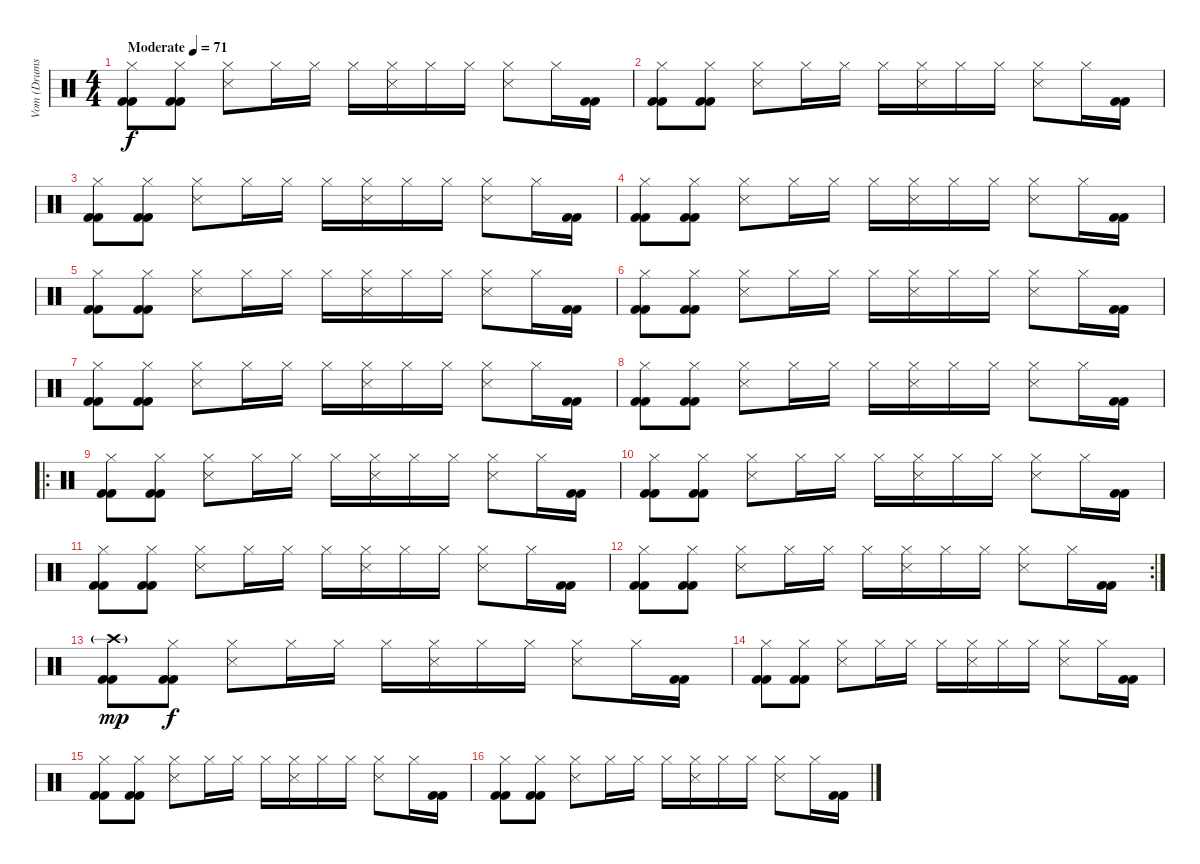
\track ("Vom (Drums)" "Vom (Drums") {instrument percussion}
\staff {score}
\articulation defaults
\ts (4 4)
\tempo (71 "Moderate")
\clef neutral
\ks c
("Hi-Hat (closed)" "Kick (hit) 2" "Kick (hit) 2").8{dy f} ("Hi-Hat (closed)" "Kick (hit) 2" "Kick (hit) 2").8 ("Hi-Hat (closed)" "Snare (side stick) 3").8 "Hi-Hat (closed)".16 "Hi-Hat (closed)".16 "Hi-Hat (closed)".16 ("Hi-Hat (closed)" "Snare (side stick) 3").16 "Hi-Hat (closed)".16 "Hi-Hat (closed)".16 ("Hi-Hat (closed)" "Snare (side stick) 3").8 "Hi-Hat (closed)".16 ("Kick (hit) 2" "Kick (hit) 2").16 |
("Hi-Hat (closed)" "Kick (hit) 2" "Kick (hit) 2").8 ("Hi-Hat (closed)" "Kick (hit) 2" "Kick (hit) 2").8 ("Hi-Hat (closed)" "Snare (side stick) 3").8 "Hi-Hat (closed)".16 "Hi-Hat (closed)".16 "Hi-Hat (closed)".16 ("Hi-Hat (closed)" "Snare (side stick) 3").16 "Hi-Hat (closed)".16 "Hi-Hat (closed)".16 ("Hi-Hat (closed)" "Snare (side stick) 3").8 "Hi-Hat (closed)".16 ("Kick (hit) 2" "Kick (hit) 2").16 |
("Hi-Hat (closed)" "Kick (hit) 2" "Kick (hit) 2").8 ("Hi-Hat (closed)" "Kick (hit) 2" "Kick (hit) 2").8 ("Hi-Hat (closed)" "Snare (side stick) 3").8 "Hi-Hat (closed)".16 "Hi-Hat (closed)".16 "Hi-Hat (closed)".16 ("Hi-Hat (closed)" "Snare (side stick) 3").16 "Hi-Hat (closed)".16 "Hi-Hat (closed)".16 ("Hi-Hat (closed)" "Snare (side stick) 3").8 "Hi-Hat (closed)".16 ("Kick (hit) 2" "Kick (hit) 2").16 |
("Hi-Hat (closed)" "Kick (hit) 2" "Kick (hit) 2").8 ("Hi-Hat (closed)" "Kick (hit) 2" "Kick (hit) 2").8 ("Hi-Hat (closed)" "Snare (side stick) 3").8 "Hi-Hat (closed)".16 "Hi-Hat (closed)".16 "Hi-Hat (closed)".16 ("Hi-Hat (closed)" "Snare (side stick) 3").16 "Hi-Hat (closed)".16 "Hi-Hat (closed)".16 ("Hi-Hat (closed)" "Snare (side stick) 3").8 "Hi-Hat (closed)".16 ("Kick (hit) 2" "Kick (hit) 2").16 |
("Hi-Hat (closed)" "Kick (hit) 2" "Kick (hit) 2").8 ("Hi-Hat (closed)" "Kick (hit) 2" "Kick (hit) 2").8 ("Hi-Hat (closed)" "Snare (side stick) 3").8 "Hi-Hat (closed)".16 "Hi-Hat (closed)".16 "Hi-Hat (closed)".16 ("Hi-Hat (closed)" "Snare (side stick) 3").16 "Hi-Hat (closed)".16 "Hi-Hat (closed)".16 ("Hi-Hat (closed)" "Snare (side stick) 3").8 "Hi-Hat (closed)".16 ("Kick (hit) 2" "Kick (hit) 2").16 |
("Hi-Hat (closed)" "Kick (hit) 2" "Kick (hit) 2").8 ("Hi-Hat (closed)" "Kick (hit) 2" "Kick (hit) 2").8 ("Hi-Hat (closed)" "Snare (side stick) 3").8 "Hi-Hat (closed)".16 "Hi-Hat (closed)".16 "Hi-Hat (closed)".16 ("Hi-Hat (closed)" "Snare (side stick) 3").16 "Hi-Hat (closed)".16 "Hi-Hat (closed)".16 ("Hi-Hat (closed)" "Snare (side stick) 3").8 "Hi-Hat (closed)".16 ("Kick (hit) 2" "Kick (hit) 2").16 |
("Hi-Hat (closed)" "Kick (hit) 2" "Kick (hit) 2").8 ("Hi-Hat (closed)" "Kick (hit) 2" "Kick (hit) 2").8 ("Hi-Hat (closed)" "Snare (side stick) 3").8 "Hi-Hat (closed)".16 "Hi-Hat (closed)".16 "Hi-Hat (closed)".16 ("Hi-Hat (closed)" "Snare (side stick) 3").16 "Hi-Hat (closed)".16 "Hi-Hat (closed)".16 ("Hi-Hat (closed)" "Snare (side stick) 3").8 "Hi-Hat (closed)".16 ("Kick (hit) 2" "Kick (hit) 2").16 |
("Hi-Hat (closed)" "Kick (hit) 2" "Kick (hit) 2").8 ("Hi-Hat (closed)" "Kick (hit) 2" "Kick (hit) 2").8 ("Hi-Hat (closed)" "Snare (side stick) 3").8 "Hi-Hat (closed)".16 "Hi-Hat (closed)".16 "Hi-Hat (closed)".16 ("Hi-Hat (closed)" "Snare (side stick) 3").16 "Hi-Hat (closed)".16 "Hi-Hat (closed)".16 ("Hi-Hat (closed)" "Snare (side stick) 3").8 "Hi-Hat (closed)".16 ("Kick (hit) 2" "Kick (hit) 2").16 |
\ro
("Hi-Hat (closed)" "Kick (hit) 2" "Kick (hit) 2").8 ("Hi-Hat (closed)" "Kick (hit) 2" "Kick (hit) 2").8 ("Hi-Hat (closed)" "Snare (side stick) 3").8 "Hi-Hat (closed)".16 "Hi-Hat (closed)".16 "Hi-Hat (closed)".16 ("Hi-Hat (closed)" "Snare (side stick) 3").16 "Hi-Hat (closed)".16 "Hi-Hat (closed)".16 ("Hi-Hat (closed)" "Snare (side stick) 3").8 "Hi-Hat (closed)".16 ("Kick (hit) 2" "Kick (hit) 2").16 |
("Hi-Hat (closed)" "Kick (hit) 2" "Kick (hit) 2").8 ("Hi-Hat (closed)" "Kick (hit) 2" "Kick (hit) 2").8 ("Hi-Hat (closed)" "Snare (side stick) 3").8 "Hi-Hat (closed)".16 "Hi-Hat (closed)".16 "Hi-Hat (closed)".16 ("Hi-Hat (closed)" "Snare (side stick) 3").16 "Hi-Hat (closed)".16 "Hi-Hat (closed)".16 ("Hi-Hat (closed)" "Snare (side stick) 3").8 "Hi-Hat (closed)".16 ("Kick (hit) 2" "Kick (hit) 2").16 |
("Hi-Hat (closed)" "Kick (hit) 2" "Kick (hit) 2").8 ("Hi-Hat (closed)" "Kick (hit) 2" "Kick (hit) 2").8 ("Hi-Hat (closed)" "Snare (side stick) 3").8 "Hi-Hat (closed)".16 "Hi-Hat (closed)".16 "Hi-Hat (closed)".16 ("Hi-Hat (closed)" "Snare (side stick) 3").16 "Hi-Hat (closed)".16 "Hi-Hat (closed)".16 ("Hi-Hat (closed)" "Snare (side stick) 3").8 "Hi-Hat (closed)".16 ("Kick (hit) 2" "Kick (hit) 2").16 |
\rc 2
("Hi-Hat (closed)" "Kick (hit) 2" "Kick (hit) 2").8 ("Hi-Hat (closed)" "Kick (hit) 2" "Kick (hit) 2").8 ("Hi-Hat (closed)" "Snare (side stick) 3").8 "Hi-Hat (closed)".16 "Hi-Hat (closed)".16 "Hi-Hat (closed)".16 ("Hi-Hat (closed)" "Snare (side stick) 3").16 "Hi-Hat (closed)".16 "Hi-Hat (closed)".16 ("Hi-Hat (closed)" "Snare (side stick) 3").8 "Hi-Hat (closed)".16 ("Kick (hit) 2" "Kick (hit) 2").16 |
("Crash high (hit)"{g} "Kick (hit) 2" "Kick (hit) 2").8{dy mp} ("Hi-Hat (closed)" "Kick (hit) 2" "Kick (hit) 2").8{dy f} ("Hi-Hat (closed)" "Snare (side stick) 3").8 "Hi-Hat (closed)".16 "Hi-Hat (closed)".16 "Hi-Hat (closed)".16 ("Hi-Hat (closed)" "Snare (side stick) 3").16 "Hi-Hat (closed)".16 "Hi-Hat (closed)".16 ("Hi-Hat (closed)" "Snare (side stick) 3").8 "Hi-Hat (closed)".16 ("Kick (hit) 2" "Kick (hit) 2").16 |
("Hi-Hat (closed)" "Kick (hit) 2" "Kick (hit) 2").8 ("Hi-Hat (closed)" "Kick (hit) 2" "Kick (hit) 2").8 ("Hi-Hat (closed)" "Snare (side stick) 3").8 "Hi-Hat (closed)".16 "Hi-Hat (closed)".16 "Hi-Hat (closed)".16 ("Hi-Hat (closed)" "Snare (side stick) 3").16 "Hi-Hat (closed)".16 "Hi-Hat (closed)".16 ("Hi-Hat (closed)" "Snare (side stick) 3").8 "Hi-Hat (closed)".16 ("Kick (hit) 2" "Kick (hit) 2").16 |
("Hi-Hat (closed)" "Kick (hit) 2" "Kick (hit) 2").8 ("Hi-Hat (closed)" "Kick (hit) 2" "Kick (hit) 2").8 ("Hi-Hat (closed)" "Snare (side stick) 3").8 "Hi-Hat (closed)".16 "Hi-Hat (closed)".16 "Hi-Hat (closed)".16 ("Hi-Hat (closed)" "Snare (side stick) 3").16 "Hi-Hat (closed)".16 "Hi-Hat (closed)".16 ("Hi-Hat (closed)" "Snare (side stick) 3").8 "Hi-Hat (closed)".16 ("Kick (hit) 2" "Kick (hit) 2").16 |
("Hi-Hat (closed)" "Kick (hit) 2" "Kick (hit) 2").8 ("Hi-Hat (closed)" "Kick (hit) 2" "Kick (hit) 2").8 ("Hi-Hat (closed)" "Snare (side stick) 3").8 "Hi-Hat (closed)".16 "Hi-Hat (closed)".16 "Hi-Hat (closed)".16 ("Hi-Hat (closed)" "Snare (side stick) 3").16 "Hi-Hat (closed)".16 "Hi-Hat (closed)".16 ("Hi-Hat (closed)" "Snare (side stick) 3").8 "Hi-Hat (closed)".16 ("Kick (hit) 2" "Kick (hit) 2").16
